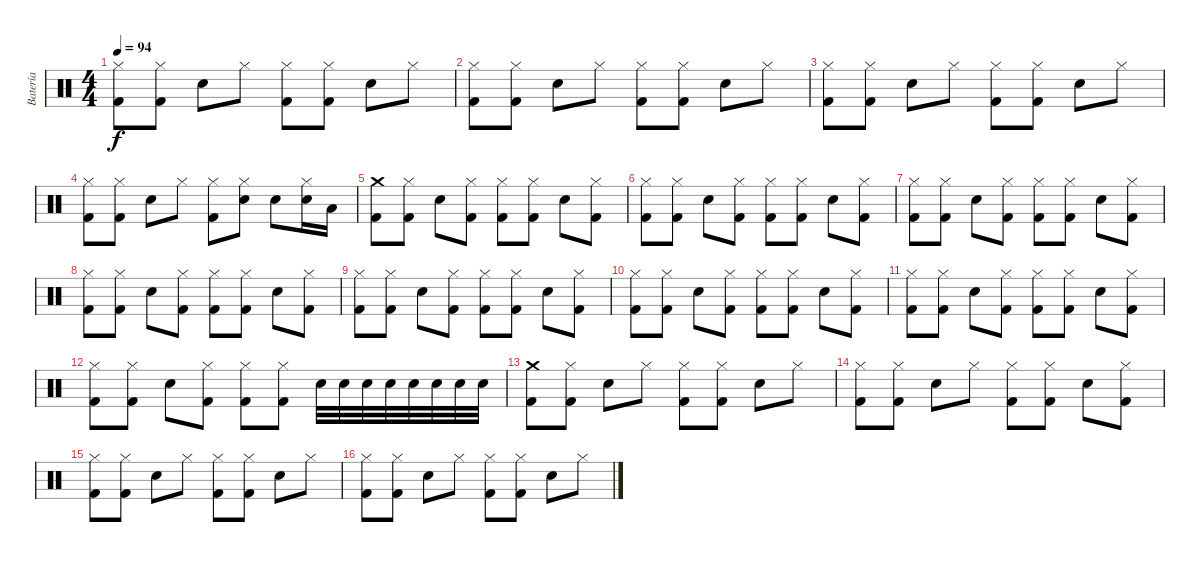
\track ("Batería" "Batería") {instrument percussion}
\staff {score}
\articulation defaults
\ts (4 4)
\tempo 94
\clef neutral
\ks c
("Hi-Hat (closed)" "Kick (hit) 2").8{dy f} ("Hi-Hat (closed)" "Kick (hit) 2").8 "Snare (hit) 2".8 "Hi-Hat (closed)".8 ("Hi-Hat (closed)" "Kick (hit) 2").8 ("Hi-Hat (closed)" "Kick (hit) 2").8 "Snare (hit) 2".8 "Hi-Hat (closed)".8 |
("Hi-Hat (closed)" "Kick (hit) 2").8 ("Hi-Hat (closed)" "Kick (hit) 2").8 "Snare (hit) 2".8 "Hi-Hat (closed)".8 ("Hi-Hat (closed)" "Kick (hit) 2").8 ("Hi-Hat (closed)" "Kick (hit) 2").8 "Snare (hit) 2".8 "Hi-Hat (closed)".8 |
("Hi-Hat (closed)" "Kick (hit) 2").8 ("Hi-Hat (closed)" "Kick (hit) 2").8 "Snare (hit) 2".8 "Hi-Hat (closed)".8 ("Hi-Hat (closed)" "Kick (hit) 2").8 ("Hi-Hat (closed)" "Kick (hit) 2").8 "Snare (hit) 2".8 "Hi-Hat (closed)".8 |
("Hi-Hat (closed)" "Kick (hit) 2").8 ("Hi-Hat (closed)" "Kick (hit) 2").8 "Snare (hit) 2".8 "Hi-Hat (closed)".8 ("Hi-Hat (closed)" "Kick (hit) 2").8 ("Hi-Hat (closed)" "Snare (hit) 2").8 "Snare (hit) 2".8 ("Snare (hit) 2" "Hi-Hat (closed)").16 "Low Tom (hit)".16 |
("Crash medium (hit)" "Kick (hit) 2").8 ("Hi-Hat (closed)" "Kick (hit) 2").8 "Snare (hit) 2".8 ("Kick (hit) 2" "Hi-Hat (closed)").8 ("Hi-Hat (closed)" "Kick (hit) 2").8 ("Hi-Hat (closed)" "Kick (hit) 2").8 "Snare (hit) 2".8 ("Kick (hit) 2" "Hi-Hat (closed)").8 |
("Hi-Hat (closed)" "Kick (hit) 2").8 ("Hi-Hat (closed)" "Kick (hit) 2").8 "Snare (hit) 2".8 ("Kick (hit) 2" "Hi-Hat (closed)").8 ("Hi-Hat (closed)" "Kick (hit) 2").8 ("Hi-Hat (closed)" "Kick (hit) 2").8 "Snare (hit) 2".8 ("Kick (hit) 2" "Hi-Hat (closed)").8 |
("Hi-Hat (closed)" "Kick (hit) 2").8 ("Hi-Hat (closed)" "Kick (hit) 2").8 "Snare (hit) 2".8 ("Kick (hit) 2" "Hi-Hat (closed)").8 ("Hi-Hat (closed)" "Kick (hit) 2").8 ("Hi-Hat (closed)" "Kick (hit) 2").8 "Snare (hit) 2".8 ("Kick (hit) 2" "Hi-Hat (closed)").8 |
("Hi-Hat (closed)" "Kick (hit) 2").8 ("Hi-Hat (closed)" "Kick (hit) 2").8 "Snare (hit) 2".8 ("Kick (hit) 2" "Hi-Hat (closed)").8 ("Hi-Hat (closed)" "Kick (hit) 2").8 ("Hi-Hat (closed)" "Kick (hit) 2").8 "Snare (hit) 2".8 ("Kick (hit) 2" "Hi-Hat (closed)").8 |
("Hi-Hat (closed)" "Kick (hit) 2").8 ("Hi-Hat (closed)" "Kick (hit) 2").8 "Snare (hit) 2".8 ("Kick (hit) 2" "Hi-Hat (closed)").8 ("Hi-Hat (closed)" "Kick (hit) 2").8 ("Hi-Hat (closed)" "Kick (hit) 2").8 "Snare (hit) 2".8 ("Kick (hit) 2" "Hi-Hat (closed)").8 |
("Hi-Hat (closed)" "Kick (hit) 2").8 ("Hi-Hat (closed)" "Kick (hit) 2").8 "Snare (hit) 2".8 ("Kick (hit) 2" "Hi-Hat (closed)").8 ("Hi-Hat (closed)" "Kick (hit) 2").8 ("Hi-Hat (closed)" "Kick (hit) 2").8 "Snare (hit) 2".8 ("Kick (hit) 2" "Hi-Hat (closed)").8 |
("Hi-Hat (closed)" "Kick (hit) 2").8 ("Hi-Hat (closed)" "Kick (hit) 2").8 "Snare (hit) 2".8 ("Kick (hit) 2" "Hi-Hat (closed)").8 ("Hi-Hat (closed)" "Kick (hit) 2").8 ("Hi-Hat (closed)" "Kick (hit) 2").8 "Snare (hit) 2".8 ("Kick (hit) 2" "Hi-Hat (closed)").8 |
("Hi-Hat (closed)" "Kick (hit) 2").8 ("Hi-Hat (closed)" "Kick (hit) 2").8 "Snare (hit) 2".8 ("Hi-Hat (closed)" "Kick (hit) 2").8 ("Kick (hit) 2" "Hi-Hat (closed)").8 ("Hi-Hat (closed)" "Kick (hit) 2").8 "Snare (hit) 2".32 "Snare (hit) 2".32 "Snare (hit) 2".32 "Snare (hit) 2".32 "Snare (hit) 2".32 "Snare (hit) 2".32 "Snare (hit) 2".32 "Snare (hit) 2".32 |
("Crash medium (hit)" "Kick (hit) 2").8 ("Hi-Hat (closed)" "Kick (hit) 2").8 "Snare (hit) 2".8 "Hi-Hat (closed)".8 ("Hi-Hat (closed)" "Kick (hit) 2").8 ("Hi-Hat (closed)" "Kick (hit) 2").8 "Snare (hit) 2".8 "Hi-Hat (closed)".8 |
("Hi-Hat (closed)" "Kick (hit) 2").8 ("Hi-Hat (closed)" "Kick (hit) 2").8 "Snare (hit) 2".8 "Hi-Hat (closed)".8 ("Hi-Hat (closed)" "Kick (hit) 2").8 ("Hi-Hat (closed)" "Kick (hit) 2").8 "Snare (hit) 2".8 ("Kick (hit) 2" "Hi-Hat (closed)").8 |
("Hi-Hat (closed)" "Kick (hit) 2").8 ("Hi-Hat (closed)" "Kick (hit) 2").8 "Snare (hit) 2".8 "Hi-Hat (closed)".8 ("Hi-Hat (closed)" "Kick (hit) 2").8 ("Hi-Hat (closed)" "Kick (hit) 2").8 "Snare (hit) 2".8 "Hi-Hat (closed)".8 |
("Hi-Hat (closed)" "Kick (hit) 2").8 ("Hi-Hat (closed)" "Kick (hit) 2").8 "Snare (hit) 2".8 "Hi-Hat (closed)".8 ("Hi-Hat (closed)" "Kick (hit) 2").8 ("Hi-Hat (closed)" "Kick (hit) 2").8 "Snare (hit) 2".8 "Hi-Hat (closed)".8
